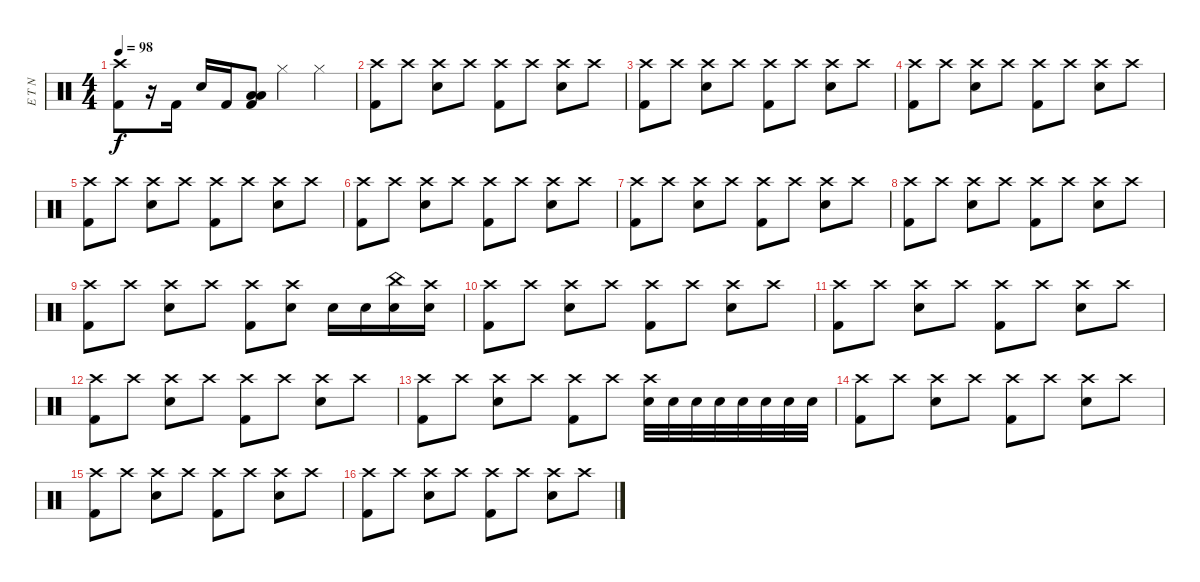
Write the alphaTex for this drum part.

\track ("E T N" "E T N") {instrument percussion}
\staff {score}
\articulation defaults
\ts (4 4)
\tempo 98
\clef neutral
\ks c
("Crash high (hit)" "Kick (hit) 2").8{dy f} r.16 "Kick (hit) 2".16 "Electric Snare (hit)".16 "Kick (hit) 2".16 ("Low Tom (hit)" "Low Floor Tom (hit)" "Kick (hit) 2").8 "Hi-Hat (closed)".4 "Hi-Hat (closed)".4 |
("Crash high (hit)" "Kick (hit) 2").8 "Crash high (hit)".8 ("Crash high (hit)" "Electric Snare (hit)").8 "Crash high (hit)".8 ("Crash high (hit)" "Kick (hit) 2").8 "Crash high (hit)".8 ("Crash high (hit)" "Electric Snare (hit)").8 "Crash high (hit)".8 |
("Crash high (hit)" "Kick (hit) 2").8 "Crash high (hit)".8 ("Crash high (hit)" "Electric Snare (hit)").8 "Crash high (hit)".8 ("Crash high (hit)" "Kick (hit) 2").8 "Crash high (hit)".8 ("Crash high (hit)" "Electric Snare (hit)").8 "Crash high (hit)".8 |
("Crash high (hit)" "Kick (hit) 2").8 "Crash high (hit)".8 ("Crash high (hit)" "Electric Snare (hit)").8 "Crash high (hit)".8 ("Crash high (hit)" "Kick (hit) 2").8 "Crash high (hit)".8 ("Crash high (hit)" "Electric Snare (hit)").8 "Crash high (hit)".8 |
("Crash high (hit)" "Kick (hit) 2").8 "Crash high (hit)".8 ("Crash high (hit)" "Electric Snare (hit)").8 "Crash high (hit)".8 ("Crash high (hit)" "Kick (hit) 2").8 "Crash high (hit)".8 ("Crash high (hit)" "Electric Snare (hit)").8 "Crash high (hit)".8 |
("Crash high (hit)" "Kick (hit) 2").8 "Crash high (hit)".8 ("Crash high (hit)" "Electric Snare (hit)").8 "Crash high (hit)".8 ("Crash high (hit)" "Kick (hit) 2").8 "Crash high (hit)".8 ("Crash high (hit)" "Electric Snare (hit)").8 "Crash high (hit)".8 |
("Crash high (hit)" "Kick (hit) 2").8 "Crash high (hit)".8 ("Crash high (hit)" "Electric Snare (hit)").8 "Crash high (hit)".8 ("Crash high (hit)" "Kick (hit) 2").8 "Crash high (hit)".8 ("Crash high (hit)" "Electric Snare (hit)").8 "Crash high (hit)".8 |
("Crash high (hit)" "Kick (hit) 2").8 "Crash high (hit)".8 ("Crash high (hit)" "Electric Snare (hit)").8 "Crash high (hit)".8 ("Crash high (hit)" "Kick (hit) 2").8 "Crash high (hit)".8 ("Crash high (hit)" "Electric Snare (hit)").8 "Crash high (hit)".8 |
("Crash high (hit)" "Kick (hit) 2").8 "Crash high (hit)".8 ("Crash high (hit)" "Electric Snare (hit)").8 "Crash high (hit)".8 ("Crash high (hit)" "Kick (hit) 2").8 ("Crash high (hit)" "Electric Snare (hit)").8 "Electric Snare (hit)".16 "Electric Snare (hit)".16 ("China (hit)" "Electric Snare (hit)").16 ("Crash high (hit)" "Electric Snare (hit)").16 |
("Crash high (hit)" "Kick (hit) 2").8 "Crash high (hit)".8 ("Crash high (hit)" "Electric Snare (hit)").8 "Crash high (hit)".8 ("Crash high (hit)" "Kick (hit) 2").8 "Crash high (hit)".8 ("Crash high (hit)" "Electric Snare (hit)").8 "Crash high (hit)".8 |
("Crash high (hit)" "Kick (hit) 2").8 "Crash high (hit)".8 ("Crash high (hit)" "Electric Snare (hit)").8 "Crash high (hit)".8 ("Crash high (hit)" "Kick (hit) 2").8 "Crash high (hit)".8 ("Crash high (hit)" "Electric Snare (hit)").8 "Crash high (hit)".8 |
("Crash high (hit)" "Kick (hit) 2").8 "Crash high (hit)".8 ("Crash high (hit)" "Electric Snare (hit)").8 "Crash high (hit)".8 ("Crash high (hit)" "Kick (hit) 2").8 "Crash high (hit)".8 ("Crash high (hit)" "Electric Snare (hit)").8 "Crash high (hit)".8 |
("Crash high (hit)" "Kick (hit) 2").8 "Crash high (hit)".8 ("Crash high (hit)" "Electric Snare (hit)").8 "Crash high (hit)".8 ("Crash high (hit)" "Kick (hit) 2").8 "Crash high (hit)".8 ("Crash high (hit)" "Electric Snare (hit)").32 "Electric Snare (hit)".32 "Electric Snare (hit)".32 "Electric Snare (hit)".32 "Electric Snare (hit)".32 "Electric Snare (hit)".32 "Electric Snare (hit)".32 "Electric Snare (hit)".32 |
("Crash high (hit)" "Kick (hit) 2").8 "Crash high (hit)".8 ("Crash high (hit)" "Electric Snare (hit)").8 "Crash high (hit)".8 ("Crash high (hit)" "Kick (hit) 2").8 "Crash high (hit)".8 ("Crash high (hit)" "Electric Snare (hit)").8 "Crash high (hit)".8 |
("Crash high (hit)" "Kick (hit) 2").8 "Crash high (hit)".8 ("Crash high (hit)" "Electric Snare (hit)").8 "Crash high (hit)".8 ("Crash high (hit)" "Kick (hit) 2").8 "Crash high (hit)".8 ("Crash high (hit)" "Electric Snare (hit)").8 "Crash high (hit)".8 |
("Crash high (hit)" "Kick (hit) 2").8 "Crash high (hit)".8 ("Crash high (hit)" "Electric Snare (hit)").8 "Crash high (hit)".8 ("Crash high (hit)" "Kick (hit) 2").8 "Crash high (hit)".8 ("Crash high (hit)" "Electric Snare (hit)").8 "Crash high (hit)".8
